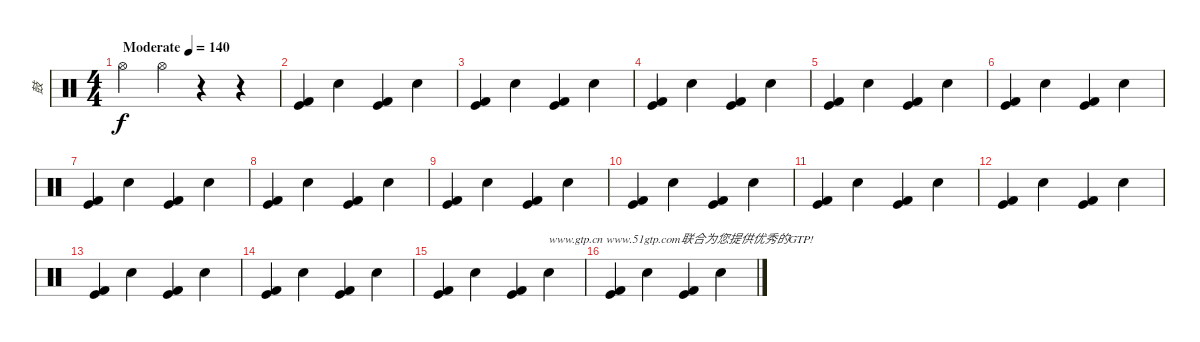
\track ("鼓" "鼓") {instrument percussion}
\staff {score}
\articulation defaults
\ts (4 4)
\tempo (140 "Moderate")
\clef neutral
\ks c "Hi-Hat (open)".4{dy f} "Hi-Hat (open)".4
r.4 r.4 |
("Kick (hit)" "Kick (hit) 2").4 "Snare (hit) 2".4 ("Kick (hit)" "Kick (hit) 2").4 "Snare (hit) 2".4 |
("Kick (hit)" "Kick (hit) 2").4 "Snare (hit) 2".4 ("Kick (hit)" "Kick (hit) 2").4 "Snare (hit) 2".4 |
("Kick (hit)" "Kick (hit) 2").4 "Snare (hit) 2".4 ("Kick (hit)" "Kick (hit) 2").4 "Snare (hit) 2".4 |
("Kick (hit)" "Kick (hit) 2").4 "Snare (hit) 2".4 ("Kick (hit)" "Kick (hit) 2").4 "Snare (hit) 2".4 |
("Kick (hit)" "Kick (hit) 2").4 "Snare (hit) 2".4 ("Kick (hit)" "Kick (hit) 2").4 "Snare (hit) 2".4 |
("Kick (hit)" "Kick (hit) 2").4 "Snare (hit) 2".4 ("Kick (hit)" "Kick (hit) 2").4 "Snare (hit) 2".4 |
("Kick (hit)" "Kick (hit) 2").4 "Snare (hit) 2".4 ("Kick (hit)" "Kick (hit) 2").4 "Snare (hit) 2".4 |
("Kick (hit)" "Kick (hit) 2").4 "Snare (hit) 2".4 ("Kick (hit)" "Kick (hit) 2").4 "Snare (hit) 2".4 |
("Kick (hit)" "Kick (hit) 2").4 "Snare (hit) 2".4 ("Kick (hit)" "Kick (hit) 2").4 "Snare (hit) 2".4 |
("Kick (hit)" "Kick (hit) 2").4 "Snare (hit) 2".4 ("Kick (hit)" "Kick (hit) 2").4 "Snare (hit) 2".4 |
("Kick (hit)" "Kick (hit) 2").4 "Snare (hit) 2".4 ("Kick (hit)" "Kick (hit) 2").4 "Snare (hit) 2".4 |
("Kick (hit)" "Kick (hit) 2").4 "Snare (hit) 2".4 ("Kick (hit)" "Kick (hit) 2").4 "Snare (hit) 2".4 |
("Kick (hit)" "Kick (hit) 2").4 "Snare (hit) 2".4 ("Kick (hit)" "Kick (hit) 2").4 "Snare (hit) 2".4 |
("Kick (hit)" "Kick (hit) 2").4 "Snare (hit) 2".4 ("Kick (hit)" "Kick (hit) 2").4 "Snare (hit) 2".4{txt "www.gtp.cn www.51gtp.com联合为您提供优秀的GTP!"} |
("Kick (hit)" "Kick (hit) 2").4 "Snare (hit) 2".4 ("Kick (hit)" "Kick (hit) 2").4 "Snare (hit) 2".4
